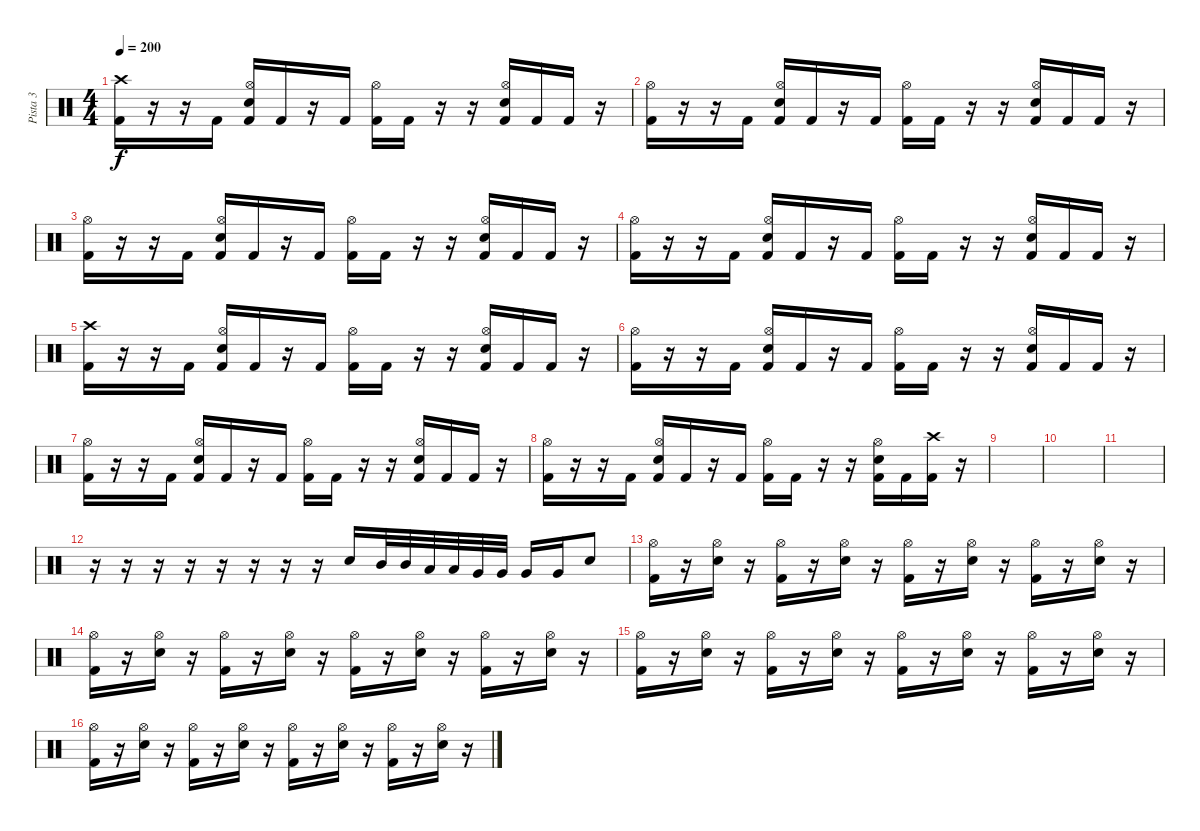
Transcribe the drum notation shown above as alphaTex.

\track ("Pista 3" "Pista 3") {instrument percussion}
\staff {score}
\articulation defaults
\ts (4 4)
\tempo 200
\clef neutral
\ks c
("Crash high (hit)" "Kick (hit) 2").16{dy f} r.16 r.16 "Kick (hit) 2".16 ("Hi-Hat (open)" "Electric Snare (hit)" "Kick (hit) 2").16 "Kick (hit) 2".16 r.16 "Kick (hit) 2".16 ("Hi-Hat (open)" "Kick (hit) 2").16 "Kick (hit) 2".16 r.16 r.16 ("Hi-Hat (open)" "Electric Snare (hit)" "Kick (hit) 2").16 "Kick (hit) 2".16 "Kick (hit) 2".16 r.16 |
("Hi-Hat (open)" "Kick (hit) 2").16 r.16 r.16 "Kick (hit) 2".16 ("Hi-Hat (open)" "Electric Snare (hit)" "Kick (hit) 2").16 "Kick (hit) 2".16 r.16 "Kick (hit) 2".16 ("Hi-Hat (open)" "Kick (hit) 2").16 "Kick (hit) 2".16 r.16 r.16 ("Hi-Hat (open)" "Electric Snare (hit)" "Kick (hit) 2").16 "Kick (hit) 2".16 "Kick (hit) 2".16 r.16 |
("Hi-Hat (open)" "Kick (hit) 2").16 r.16 r.16 "Kick (hit) 2".16 ("Hi-Hat (open)" "Electric Snare (hit)" "Kick (hit) 2").16 "Kick (hit) 2".16 r.16 "Kick (hit) 2".16 ("Hi-Hat (open)" "Kick (hit) 2").16 "Kick (hit) 2".16 r.16 r.16 ("Hi-Hat (open)" "Electric Snare (hit)" "Kick (hit) 2").16 "Kick (hit) 2".16 "Kick (hit) 2".16 r.16 |
("Hi-Hat (open)" "Kick (hit) 2").16 r.16 r.16 "Kick (hit) 2".16 ("Hi-Hat (open)" "Electric Snare (hit)" "Kick (hit) 2").16 "Kick (hit) 2".16 r.16 "Kick (hit) 2".16 ("Hi-Hat (open)" "Kick (hit) 2").16 "Kick (hit) 2".16 r.16 r.16 ("Hi-Hat (open)" "Electric Snare (hit)" "Kick (hit) 2").16 "Kick (hit) 2".16 "Kick (hit) 2".16 r.16 |
("Crash high (hit)" "Kick (hit) 2").16 r.16 r.16 "Kick (hit) 2".16 ("Hi-Hat (open)" "Electric Snare (hit)" "Kick (hit) 2").16 "Kick (hit) 2".16 r.16 "Kick (hit) 2".16 ("Hi-Hat (open)" "Kick (hit) 2").16 "Kick (hit) 2".16 r.16 r.16 ("Hi-Hat (open)" "Electric Snare (hit)" "Kick (hit) 2").16 "Kick (hit) 2".16 "Kick (hit) 2".16 r.16 |
("Hi-Hat (open)" "Kick (hit) 2").16 r.16 r.16 "Kick (hit) 2".16 ("Hi-Hat (open)" "Electric Snare (hit)" "Kick (hit) 2").16 "Kick (hit) 2".16 r.16 "Kick (hit) 2".16 ("Hi-Hat (open)" "Kick (hit) 2").16 "Kick (hit) 2".16 r.16 r.16 ("Hi-Hat (open)" "Electric Snare (hit)" "Kick (hit) 2").16 "Kick (hit) 2".16 "Kick (hit) 2".16 r.16 |
("Hi-Hat (open)" "Kick (hit) 2").16 r.16 r.16 "Kick (hit) 2".16 ("Hi-Hat (open)" "Electric Snare (hit)" "Kick (hit) 2").16 "Kick (hit) 2".16 r.16 "Kick (hit) 2".16 ("Hi-Hat (open)" "Kick (hit) 2").16 "Kick (hit) 2".16 r.16 r.16 ("Hi-Hat (open)" "Electric Snare (hit)" "Kick (hit) 2").16 "Kick (hit) 2".16 "Kick (hit) 2".16 r.16 |
("Hi-Hat (open)" "Kick (hit) 2").16 r.16 r.16 "Kick (hit) 2".16 ("Hi-Hat (open)" "Electric Snare (hit)" "Kick (hit) 2").16 "Kick (hit) 2".16 r.16 "Kick (hit) 2".16 ("Hi-Hat (open)" "Kick (hit) 2").16 "Kick (hit) 2".16 r.16 r.16 ("Hi-Hat (open)" "Electric Snare (hit)" "Kick (hit) 2").16 "Kick (hit) 2".16 ("Crash high (hit)" "Kick (hit) 2").16 r.16 |
|
|
|
r.16 r.16 r.16 r.16 r.16 r.16 r.16 r.16 "Electric Snare (hit)".16 "Mid Tom (hit)".32 "Mid Tom (hit)".32 "Low Tom (hit)".32 "Low Tom (hit)".32 "Very Low Tom (hit)".32 "Very Low Tom (hit)".32 "Very Low Tom (hit)".16 "Very Low Tom (hit)".16 "Electric Snare (hit)".8 |
("Hi-Hat (open)" "Kick (hit) 2").16 r.16 ("Hi-Hat (open)" "Electric Snare (hit)").16 r.16 ("Hi-Hat (open)" "Kick (hit) 2").16 r.16 ("Hi-Hat (open)" "Electric Snare (hit)").16 r.16 ("Hi-Hat (open)" "Kick (hit) 2").16 r.16 ("Hi-Hat (open)" "Electric Snare (hit)").16 r.16 ("Hi-Hat (open)" "Kick (hit) 2").16 r.16 ("Hi-Hat (open)" "Electric Snare (hit)").16 r.16 |
("Hi-Hat (open)" "Kick (hit) 2").16 r.16 ("Hi-Hat (open)" "Electric Snare (hit)").16 r.16 ("Hi-Hat (open)" "Kick (hit) 2").16 r.16 ("Hi-Hat (open)" "Electric Snare (hit)").16 r.16 ("Hi-Hat (open)" "Kick (hit) 2").16 r.16 ("Hi-Hat (open)" "Electric Snare (hit)").16 r.16 ("Hi-Hat (open)" "Kick (hit) 2").16 r.16 ("Hi-Hat (open)" "Electric Snare (hit)").16 r.16 |
("Hi-Hat (open)" "Kick (hit) 2").16 r.16 ("Hi-Hat (open)" "Electric Snare (hit)").16 r.16 ("Hi-Hat (open)" "Kick (hit) 2").16 r.16 ("Hi-Hat (open)" "Electric Snare (hit)").16 r.16 ("Hi-Hat (open)" "Kick (hit) 2").16 r.16 ("Hi-Hat (open)" "Electric Snare (hit)").16 r.16 ("Hi-Hat (open)" "Kick (hit) 2").16 r.16 ("Hi-Hat (open)" "Electric Snare (hit)").16 r.16 |
("Hi-Hat (open)" "Kick (hit) 2").16 r.16 ("Hi-Hat (open)" "Electric Snare (hit)").16 r.16 ("Hi-Hat (open)" "Kick (hit) 2").16 r.16 ("Hi-Hat (open)" "Electric Snare (hit)").16 r.16 ("Hi-Hat (open)" "Kick (hit) 2").16 r.16 ("Hi-Hat (open)" "Electric Snare (hit)").16 r.16 ("Hi-Hat (open)" "Kick (hit) 2").16 r.16 ("Hi-Hat (open)" "Electric Snare (hit)").16 r.16
